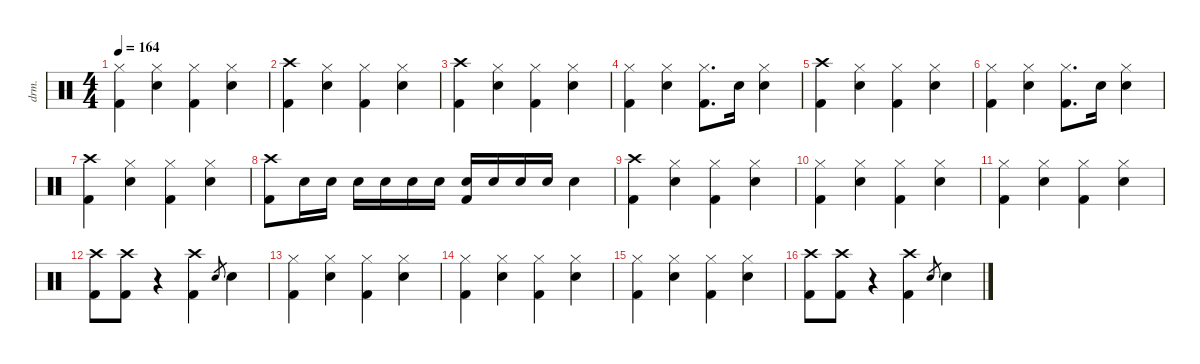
\defaultSystemsLayout 4
\hideDynamics
\bracketExtendMode nobrackets
\track ("Drums" "drm.") {instrument percussion}
\staff {score}
\articulation defaults
\ts (4 4)
\tempo 164
\clef neutral
\ks c
("Hi-Hat (closed)" "Kick (hit) 2").4{dy f} ("Hi-Hat (closed)" "Snare (hit) 2").4 ("Hi-Hat (closed)" "Kick (hit) 2").4 ("Hi-Hat (closed)" "Snare (hit) 2").4 |
("Crash high (hit)" "Kick (hit) 2").4{dy fff} ("Hi-Hat (closed)" "Snare (hit) 2").4{dy f} ("Hi-Hat (closed)" "Kick (hit) 2").4 ("Hi-Hat (closed)" "Snare (hit) 2").4 |
("Crash high (hit)" "Kick (hit) 2").4{dy fff} ("Hi-Hat (closed)" "Snare (hit) 2").4{dy f} ("Hi-Hat (closed)" "Kick (hit) 2").4 ("Hi-Hat (closed)" "Snare (hit) 2").4 |
("Hi-Hat (closed)" "Kick (hit) 2").4 ("Hi-Hat (closed)" "Snare (hit) 2").4 ("Hi-Hat (closed)" "Kick (hit) 2").8{d} "Snare (hit) 2".16 ("Hi-Hat (closed)" "Snare (hit) 2").4 |
("Crash high (hit)" "Kick (hit) 2").4{dy fff} ("Hi-Hat (closed)" "Snare (hit) 2").4{dy f} ("Hi-Hat (closed)" "Kick (hit) 2").4 ("Hi-Hat (closed)" "Snare (hit) 2").4 |
("Hi-Hat (closed)" "Kick (hit) 2").4 ("Hi-Hat (closed)" "Snare (hit) 2").4 ("Hi-Hat (closed)" "Kick (hit) 2").8{d} "Snare (hit) 2".16 ("Hi-Hat (closed)" "Snare (hit) 2").4 |
("Crash high (hit)" "Kick (hit) 2").4{dy fff} ("Hi-Hat (closed)" "Snare (hit) 2").4{dy f} ("Hi-Hat (closed)" "Kick (hit) 2").4 ("Hi-Hat (closed)" "Snare (hit) 2").4 |
("Crash high (hit)" "Kick (hit) 2").8{dy fff} "Snare (hit) 2".16{dy mp} "Snare (hit) 2".16{dy p} "Snare (hit) 2".16{dy mf} "Snare (hit) 2".16{dy mp} "Snare (hit) 2".16{dy mf} "Snare (hit) 2".16{dy mp} ("Snare (hit) 2" "Kick (hit) 2").16{dy f} "Snare (hit) 2".16{dy mf} "Snare (hit) 2".16{dy f} "Snare (hit) 2".16{dy mf} "Snare (hit) 2".4{dy ff} |
("Crash high (hit)" "Kick (hit) 2").4{dy fff} ("Hi-Hat (closed)" "Snare (hit) 2").4{dy f} ("Hi-Hat (closed)" "Kick (hit) 2").4 ("Hi-Hat (closed)" "Snare (hit) 2").4 |
("Hi-Hat (closed)" "Kick (hit) 2").4 ("Hi-Hat (closed)" "Snare (hit) 2").4 ("Hi-Hat (closed)" "Kick (hit) 2").4 ("Hi-Hat (closed)" "Snare (hit) 2").4 |
("Hi-Hat (closed)" "Kick (hit) 2").4 ("Hi-Hat (closed)" "Snare (hit) 2").4 ("Hi-Hat (closed)" "Kick (hit) 2").4 ("Hi-Hat (closed)" "Snare (hit) 2").4 |
("Crash high (hit)" "Kick (hit) 2").8{dy fff} ("Crash high (hit)" "Kick (hit) 2").8 r.4 ("Crash high (hit)" "Kick (hit) 2").4 "Snare (hit) 2".8{gr dy mf} "Snare (hit) 2".4{dy f} |
("Hi-Hat (closed)" "Kick (hit) 2").4 ("Hi-Hat (closed)" "Snare (hit) 2").4 ("Hi-Hat (closed)" "Kick (hit) 2").4 ("Hi-Hat (closed)" "Snare (hit) 2").4 |
("Hi-Hat (closed)" "Kick (hit) 2").4 ("Hi-Hat (closed)" "Snare (hit) 2").4 ("Hi-Hat (closed)" "Kick (hit) 2").4 ("Hi-Hat (closed)" "Snare (hit) 2").4 |
("Hi-Hat (closed)" "Kick (hit) 2").4 ("Hi-Hat (closed)" "Snare (hit) 2").4 ("Hi-Hat (closed)" "Kick (hit) 2").4 ("Hi-Hat (closed)" "Snare (hit) 2").4 |
("Crash high (hit)" "Kick (hit) 2").8{dy fff} ("Crash high (hit)" "Kick (hit) 2").8 r.4 ("Crash high (hit)" "Kick (hit) 2").4 "Snare (hit) 2".8{gr dy mf} "Snare (hit) 2".4{dy f}
